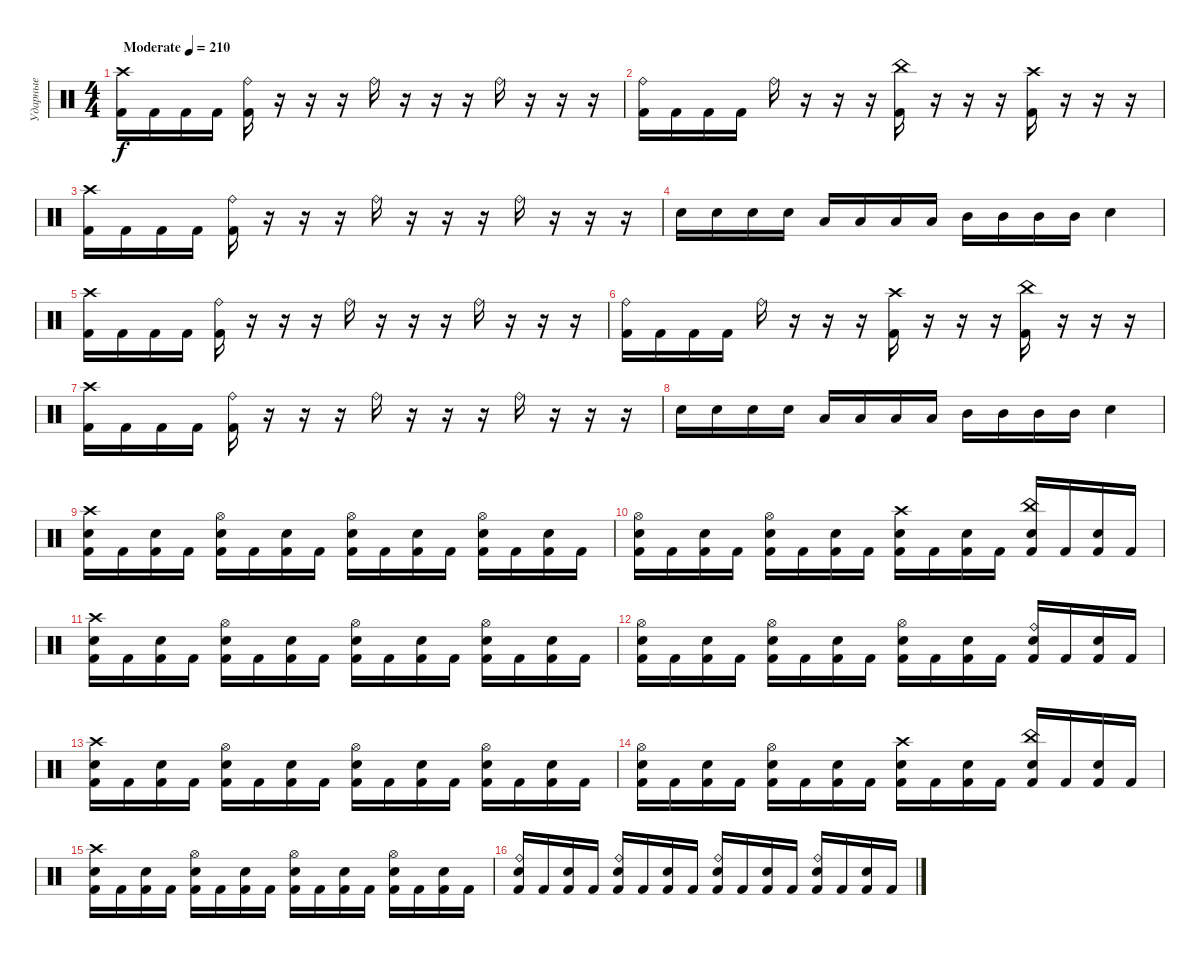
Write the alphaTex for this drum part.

\track ("Ударные" "Ударные") {instrument percussion}
\staff {score}
\articulation defaults
\ts (4 4)
\tempo (210 "Moderate")
\clef neutral
\ks c
("Crash high (hit)" "Kick (hit) 2").16{dy f} "Kick (hit) 2".16 "Kick (hit) 2".16 "Kick (hit) 2".16 ("Ride (bell)" "Kick (hit) 2").16 r.16 r.16 r.16 "Ride (bell)".16 r.16 r.16 r.16 "Ride (bell)".16 r.16 r.16 r.16 |
("Ride (bell)" "Kick (hit) 2").16 "Kick (hit) 2".16 "Kick (hit) 2".16 "Kick (hit) 2".16 "Ride (bell)".16 r.16 r.16 r.16 ("China (hit)" "Kick (hit) 2").16 r.16 r.16 r.16 ("Crash high (hit)" "Kick (hit) 2").16 r.16 r.16 r.16 |
("Crash high (hit)" "Kick (hit) 2").16 "Kick (hit) 2".16 "Kick (hit) 2".16 "Kick (hit) 2".16 ("Ride (bell)" "Kick (hit) 2").16 r.16 r.16 r.16 "Ride (bell)".16 r.16 r.16 r.16 "Ride (bell)".16 r.16 r.16 r.16 |
"Snare (hit) 2".16 "Snare (hit) 2".16 "Snare (hit) 2".16 "Snare (hit) 2".16 "Low Tom (hit)".16 "Low Tom (hit)".16 "Low Tom (hit)".16 "Low Tom (hit)".16 "Mid Tom (hit)".16 "Mid Tom (hit)".16 "Mid Tom (hit)".16 "Mid Tom (hit)".16 "Snare (hit) 2".4 |
("Crash high (hit)" "Kick (hit) 2").16 "Kick (hit) 2".16 "Kick (hit) 2".16 "Kick (hit) 2".16 ("Ride (bell)" "Kick (hit) 2").16 r.16 r.16 r.16 "Ride (bell)".16 r.16 r.16 r.16 "Ride (bell)".16 r.16 r.16 r.16 |
("Ride (bell)" "Kick (hit) 2").16 "Kick (hit) 2".16 "Kick (hit) 2".16 "Kick (hit) 2".16 "Ride (bell)".16 r.16 r.16 r.16 ("Crash high (hit)" "Kick (hit) 2").16 r.16 r.16 r.16 ("China (hit)" "Kick (hit) 2").16 r.16 r.16 r.16 |
("Crash high (hit)" "Kick (hit) 2").16 "Kick (hit) 2".16 "Kick (hit) 2".16 "Kick (hit) 2".16 ("Ride (bell)" "Kick (hit) 2").16 r.16 r.16 r.16 "Ride (bell)".16 r.16 r.16 r.16 "Ride (bell)".16 r.16 r.16 r.16 |
"Snare (hit) 2".16 "Snare (hit) 2".16 "Snare (hit) 2".16 "Snare (hit) 2".16 "Low Tom (hit)".16 "Low Tom (hit)".16 "Low Tom (hit)".16 "Low Tom (hit)".16 "Mid Tom (hit)".16 "Mid Tom (hit)".16 "Mid Tom (hit)".16 "Mid Tom (hit)".16 "Snare (hit) 2".4 |
("Crash high (hit)" "Snare (hit) 2" "Kick (hit) 2").16 "Kick (hit) 2".16 ("Snare (hit) 2" "Kick (hit) 2").16 "Kick (hit) 2".16 ("Hi-Hat (open)" "Snare (hit) 2" "Kick (hit) 2").16 "Kick (hit) 2".16 ("Snare (hit) 2" "Kick (hit) 2").16 "Kick (hit) 2".16 ("Hi-Hat (open)" "Snare (hit) 2" "Kick (hit) 2").16 "Kick (hit) 2".16 ("Snare (hit) 2" "Kick (hit) 2").16 "Kick (hit) 2".16 ("Hi-Hat (open)" "Snare (hit) 2" "Kick (hit) 2").16 "Kick (hit) 2".16 ("Snare (hit) 2" "Kick (hit) 2").16 "Kick (hit) 2".16 |
("Hi-Hat (open)" "Snare (hit) 2" "Kick (hit) 2").16 "Kick (hit) 2".16 ("Snare (hit) 2" "Kick (hit) 2").16 "Kick (hit) 2".16 ("Hi-Hat (open)" "Snare (hit) 2" "Kick (hit) 2").16 "Kick (hit) 2".16 ("Snare (hit) 2" "Kick (hit) 2").16 "Kick (hit) 2".16 ("Crash high (hit)" "Snare (hit) 2" "Kick (hit) 2").16 "Kick (hit) 2".16 ("Snare (hit) 2" "Kick (hit) 2").16 "Kick (hit) 2".16 ("China (hit)" "Snare (hit) 2" "Kick (hit) 2").16 "Kick (hit) 2".16 ("Snare (hit) 2" "Kick (hit) 2").16 "Kick (hit) 2".16 |
("Crash high (hit)" "Snare (hit) 2" "Kick (hit) 2").16 "Kick (hit) 2".16 ("Snare (hit) 2" "Kick (hit) 2").16 "Kick (hit) 2".16 ("Hi-Hat (open)" "Snare (hit) 2" "Kick (hit) 2").16 "Kick (hit) 2".16 ("Snare (hit) 2" "Kick (hit) 2").16 "Kick (hit) 2".16 ("Hi-Hat (open)" "Snare (hit) 2" "Kick (hit) 2").16 "Kick (hit) 2".16 ("Snare (hit) 2" "Kick (hit) 2").16 "Kick (hit) 2".16 ("Hi-Hat (open)" "Snare (hit) 2" "Kick (hit) 2").16 "Kick (hit) 2".16 ("Snare (hit) 2" "Kick (hit) 2").16 "Kick (hit) 2".16 |
("Hi-Hat (open)" "Snare (hit) 2" "Kick (hit) 2").16 "Kick (hit) 2".16 ("Snare (hit) 2" "Kick (hit) 2").16 "Kick (hit) 2".16 ("Hi-Hat (open)" "Snare (hit) 2" "Kick (hit) 2").16 "Kick (hit) 2".16 ("Snare (hit) 2" "Kick (hit) 2").16 "Kick (hit) 2".16 ("Hi-Hat (open)" "Snare (hit) 2" "Kick (hit) 2").16 "Kick (hit) 2".16 ("Snare (hit) 2" "Kick (hit) 2").16 "Kick (hit) 2".16 ("Ride (bell)" "Snare (hit) 2" "Kick (hit) 2").16 "Kick (hit) 2".16 ("Snare (hit) 2" "Kick (hit) 2").16 "Kick (hit) 2".16 |
("Crash high (hit)" "Snare (hit) 2" "Kick (hit) 2").16 "Kick (hit) 2".16 ("Snare (hit) 2" "Kick (hit) 2").16 "Kick (hit) 2".16 ("Hi-Hat (open)" "Snare (hit) 2" "Kick (hit) 2").16 "Kick (hit) 2".16 ("Snare (hit) 2" "Kick (hit) 2").16 "Kick (hit) 2".16 ("Hi-Hat (open)" "Snare (hit) 2" "Kick (hit) 2").16 "Kick (hit) 2".16 ("Snare (hit) 2" "Kick (hit) 2").16 "Kick (hit) 2".16 ("Hi-Hat (open)" "Snare (hit) 2" "Kick (hit) 2").16 "Kick (hit) 2".16 ("Snare (hit) 2" "Kick (hit) 2").16 "Kick (hit) 2".16 |
("Hi-Hat (open)" "Snare (hit) 2" "Kick (hit) 2").16 "Kick (hit) 2".16 ("Snare (hit) 2" "Kick (hit) 2").16 "Kick (hit) 2".16 ("Hi-Hat (open)" "Snare (hit) 2" "Kick (hit) 2").16 "Kick (hit) 2".16 ("Snare (hit) 2" "Kick (hit) 2").16 "Kick (hit) 2".16 ("Crash high (hit)" "Snare (hit) 2" "Kick (hit) 2").16 "Kick (hit) 2".16 ("Snare (hit) 2" "Kick (hit) 2").16 "Kick (hit) 2".16 ("China (hit)" "Snare (hit) 2" "Kick (hit) 2").16 "Kick (hit) 2".16 ("Snare (hit) 2" "Kick (hit) 2").16 "Kick (hit) 2".16 |
("Crash high (hit)" "Snare (hit) 2" "Kick (hit) 2").16 "Kick (hit) 2".16 ("Snare (hit) 2" "Kick (hit) 2").16 "Kick (hit) 2".16 ("Hi-Hat (open)" "Snare (hit) 2" "Kick (hit) 2").16 "Kick (hit) 2".16 ("Snare (hit) 2" "Kick (hit) 2").16 "Kick (hit) 2".16 ("Hi-Hat (open)" "Snare (hit) 2" "Kick (hit) 2").16 "Kick (hit) 2".16 ("Snare (hit) 2" "Kick (hit) 2").16 "Kick (hit) 2".16 ("Hi-Hat (open)" "Snare (hit) 2" "Kick (hit) 2").16 "Kick (hit) 2".16 ("Snare (hit) 2" "Kick (hit) 2").16 "Kick (hit) 2".16 |
("Ride (bell)" "Snare (hit) 2" "Kick (hit) 2").16 "Kick (hit) 2".16 ("Snare (hit) 2" "Kick (hit) 2").16 "Kick (hit) 2".16 ("Ride (bell)" "Snare (hit) 2" "Kick (hit) 2").16 "Kick (hit) 2".16 ("Snare (hit) 2" "Kick (hit) 2").16 "Kick (hit) 2".16 ("Ride (bell)" "Snare (hit) 2" "Kick (hit) 2").16 "Kick (hit) 2".16 ("Snare (hit) 2" "Kick (hit) 2").16 "Kick (hit) 2".16 ("Ride (bell)" "Snare (hit) 2" "Kick (hit) 2").16 "Kick (hit) 2".16 ("Snare (hit) 2" "Kick (hit) 2").16 "Kick (hit) 2".16
